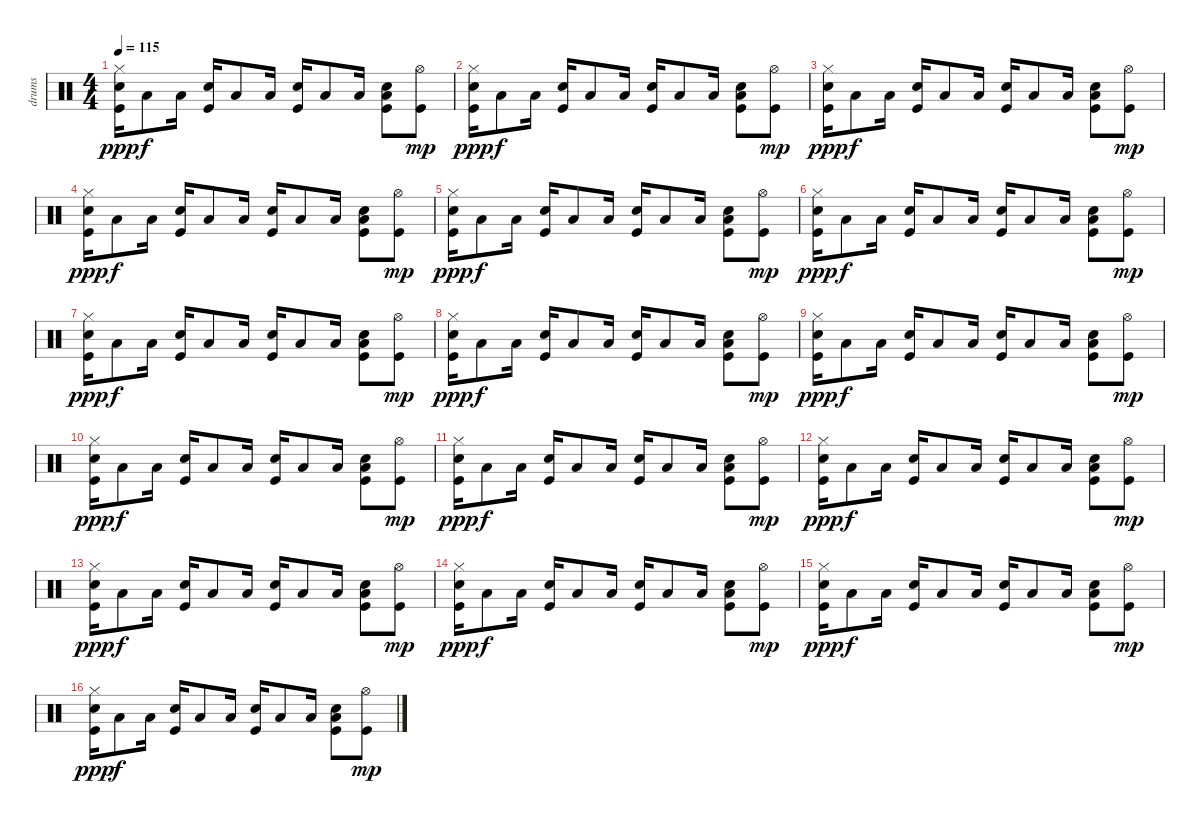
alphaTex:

\track ("drums" "drums") {instrument percussion}
\staff {score}
\articulation defaults
\ts (4 4)
\tempo 115
\clef neutral
\ks c
("Kick (hit)" "Electric Snare (hit)" "Hi-Hat (closed)").16{dy ppp} "Low Floor Tom (hit)".8{dy f} "Low Floor Tom (hit)".16 ("Kick (hit)" "Electric Snare (hit)").16 "Low Floor Tom (hit)".8 "Low Floor Tom (hit)".16 ("Kick (hit)" "Electric Snare (hit)").16 "Low Floor Tom (hit)".8 "Low Floor Tom (hit)".16 ("Kick (hit)" "Low Floor Tom (hit)" "Electric Snare (hit)").8 ("Kick (hit)" "Hi-Hat (open)").8{dy mp} |
("Kick (hit)" "Electric Snare (hit)" "Hi-Hat (closed)").16{dy ppp} "Low Floor Tom (hit)".8{dy f} "Low Floor Tom (hit)".16 ("Kick (hit)" "Electric Snare (hit)").16 "Low Floor Tom (hit)".8 "Low Floor Tom (hit)".16 ("Kick (hit)" "Electric Snare (hit)").16 "Low Floor Tom (hit)".8 "Low Floor Tom (hit)".16 ("Kick (hit)" "Low Floor Tom (hit)" "Electric Snare (hit)").8 ("Kick (hit)" "Hi-Hat (open)").8{dy mp} |
("Kick (hit)" "Electric Snare (hit)" "Hi-Hat (closed)").16{dy ppp} "Low Floor Tom (hit)".8{dy f} "Low Floor Tom (hit)".16 ("Kick (hit)" "Electric Snare (hit)").16 "Low Floor Tom (hit)".8 "Low Floor Tom (hit)".16 ("Kick (hit)" "Electric Snare (hit)").16 "Low Floor Tom (hit)".8 "Low Floor Tom (hit)".16 ("Kick (hit)" "Low Floor Tom (hit)" "Electric Snare (hit)").8 ("Kick (hit)" "Hi-Hat (open)").8{dy mp} |
("Kick (hit)" "Electric Snare (hit)" "Hi-Hat (closed)").16{dy ppp} "Low Floor Tom (hit)".8{dy f} "Low Floor Tom (hit)".16 ("Kick (hit)" "Electric Snare (hit)").16 "Low Floor Tom (hit)".8 "Low Floor Tom (hit)".16 ("Kick (hit)" "Electric Snare (hit)").16 "Low Floor Tom (hit)".8 "Low Floor Tom (hit)".16 ("Kick (hit)" "Low Floor Tom (hit)" "Electric Snare (hit)").8 ("Kick (hit)" "Hi-Hat (open)").8{dy mp} |
("Kick (hit)" "Electric Snare (hit)" "Hi-Hat (closed)").16{dy ppp} "Low Floor Tom (hit)".8{dy f} "Low Floor Tom (hit)".16 ("Kick (hit)" "Electric Snare (hit)").16 "Low Floor Tom (hit)".8 "Low Floor Tom (hit)".16 ("Kick (hit)" "Electric Snare (hit)").16 "Low Floor Tom (hit)".8 "Low Floor Tom (hit)".16 ("Kick (hit)" "Low Floor Tom (hit)" "Electric Snare (hit)").8 ("Kick (hit)" "Hi-Hat (open)").8{dy mp} |
("Kick (hit)" "Electric Snare (hit)" "Hi-Hat (closed)").16{dy ppp} "Low Floor Tom (hit)".8{dy f} "Low Floor Tom (hit)".16 ("Kick (hit)" "Electric Snare (hit)").16 "Low Floor Tom (hit)".8 "Low Floor Tom (hit)".16 ("Kick (hit)" "Electric Snare (hit)").16 "Low Floor Tom (hit)".8 "Low Floor Tom (hit)".16 ("Kick (hit)" "Low Floor Tom (hit)" "Electric Snare (hit)").8 ("Kick (hit)" "Hi-Hat (open)").8{dy mp} |
("Kick (hit)" "Electric Snare (hit)" "Hi-Hat (closed)").16{dy ppp} "Low Floor Tom (hit)".8{dy f} "Low Floor Tom (hit)".16 ("Kick (hit)" "Electric Snare (hit)").16 "Low Floor Tom (hit)".8 "Low Floor Tom (hit)".16 ("Kick (hit)" "Electric Snare (hit)").16 "Low Floor Tom (hit)".8 "Low Floor Tom (hit)".16 ("Kick (hit)" "Low Floor Tom (hit)" "Electric Snare (hit)").8 ("Kick (hit)" "Hi-Hat (open)").8{dy mp} |
("Kick (hit)" "Electric Snare (hit)" "Hi-Hat (closed)").16{dy ppp} "Low Floor Tom (hit)".8{dy f} "Low Floor Tom (hit)".16 ("Kick (hit)" "Electric Snare (hit)").16 "Low Floor Tom (hit)".8 "Low Floor Tom (hit)".16 ("Kick (hit)" "Electric Snare (hit)").16 "Low Floor Tom (hit)".8 "Low Floor Tom (hit)".16 ("Kick (hit)" "Low Floor Tom (hit)" "Electric Snare (hit)").8 ("Kick (hit)" "Hi-Hat (open)").8{dy mp} |
("Kick (hit)" "Electric Snare (hit)" "Hi-Hat (closed)").16{dy ppp} "Low Floor Tom (hit)".8{dy f} "Low Floor Tom (hit)".16 ("Kick (hit)" "Electric Snare (hit)").16 "Low Floor Tom (hit)".8 "Low Floor Tom (hit)".16 ("Kick (hit)" "Electric Snare (hit)").16 "Low Floor Tom (hit)".8 "Low Floor Tom (hit)".16 ("Kick (hit)" "Low Floor Tom (hit)" "Electric Snare (hit)").8 ("Kick (hit)" "Hi-Hat (open)").8{dy mp} |
("Kick (hit)" "Electric Snare (hit)" "Hi-Hat (closed)").16{dy ppp} "Low Floor Tom (hit)".8{dy f} "Low Floor Tom (hit)".16 ("Kick (hit)" "Electric Snare (hit)").16 "Low Floor Tom (hit)".8 "Low Floor Tom (hit)".16 ("Kick (hit)" "Electric Snare (hit)").16 "Low Floor Tom (hit)".8 "Low Floor Tom (hit)".16 ("Kick (hit)" "Low Floor Tom (hit)" "Electric Snare (hit)").8 ("Kick (hit)" "Hi-Hat (open)").8{dy mp} |
("Kick (hit)" "Electric Snare (hit)" "Hi-Hat (closed)").16{dy ppp} "Low Floor Tom (hit)".8{dy f} "Low Floor Tom (hit)".16 ("Kick (hit)" "Electric Snare (hit)").16 "Low Floor Tom (hit)".8 "Low Floor Tom (hit)".16 ("Kick (hit)" "Electric Snare (hit)").16 "Low Floor Tom (hit)".8 "Low Floor Tom (hit)".16 ("Kick (hit)" "Low Floor Tom (hit)" "Electric Snare (hit)").8 ("Kick (hit)" "Hi-Hat (open)").8{dy mp} |
("Kick (hit)" "Electric Snare (hit)" "Hi-Hat (closed)").16{dy ppp} "Low Floor Tom (hit)".8{dy f} "Low Floor Tom (hit)".16 ("Kick (hit)" "Electric Snare (hit)").16 "Low Floor Tom (hit)".8 "Low Floor Tom (hit)".16 ("Kick (hit)" "Electric Snare (hit)").16 "Low Floor Tom (hit)".8 "Low Floor Tom (hit)".16 ("Kick (hit)" "Low Floor Tom (hit)" "Electric Snare (hit)").8 ("Kick (hit)" "Hi-Hat (open)").8{dy mp} |
\section ("" "")
("Kick (hit)" "Electric Snare (hit)" "Hi-Hat (closed)").16{dy ppp} "Low Floor Tom (hit)".8{dy f} "Low Floor Tom (hit)".16 ("Kick (hit)" "Electric Snare (hit)").16 "Low Floor Tom (hit)".8 "Low Floor Tom (hit)".16 ("Kick (hit)" "Electric Snare (hit)").16 "Low Floor Tom (hit)".8 "Low Floor Tom (hit)".16 ("Kick (hit)" "Low Floor Tom (hit)" "Electric Snare (hit)").8 ("Kick (hit)" "Hi-Hat (open)").8{dy mp} |
("Kick (hit)" "Electric Snare (hit)" "Hi-Hat (closed)").16{dy ppp} "Low Floor Tom (hit)".8{dy f} "Low Floor Tom (hit)".16 ("Kick (hit)" "Electric Snare (hit)").16 "Low Floor Tom (hit)".8 "Low Floor Tom (hit)".16 ("Kick (hit)" "Electric Snare (hit)").16 "Low Floor Tom (hit)".8 "Low Floor Tom (hit)".16 ("Kick (hit)" "Low Floor Tom (hit)" "Electric Snare (hit)").8 ("Kick (hit)" "Hi-Hat (open)").8{dy mp} |
("Kick (hit)" "Electric Snare (hit)" "Hi-Hat (closed)").16{dy ppp} "Low Floor Tom (hit)".8{dy f} "Low Floor Tom (hit)".16 ("Kick (hit)" "Electric Snare (hit)").16 "Low Floor Tom (hit)".8 "Low Floor Tom (hit)".16 ("Kick (hit)" "Electric Snare (hit)").16 "Low Floor Tom (hit)".8 "Low Floor Tom (hit)".16 ("Kick (hit)" "Low Floor Tom (hit)" "Electric Snare (hit)").8 ("Kick (hit)" "Hi-Hat (open)").8{dy mp} |
("Kick (hit)" "Electric Snare (hit)" "Hi-Hat (closed)").16{dy ppp} "Low Floor Tom (hit)".8{dy f} "Low Floor Tom (hit)".16 ("Kick (hit)" "Electric Snare (hit)").16 "Low Floor Tom (hit)".8 "Low Floor Tom (hit)".16 ("Kick (hit)" "Electric Snare (hit)").16 "Low Floor Tom (hit)".8 "Low Floor Tom (hit)".16 ("Kick (hit)" "Low Floor Tom (hit)" "Electric Snare (hit)").8 ("Kick (hit)" "Hi-Hat (open)").8{dy mp}
